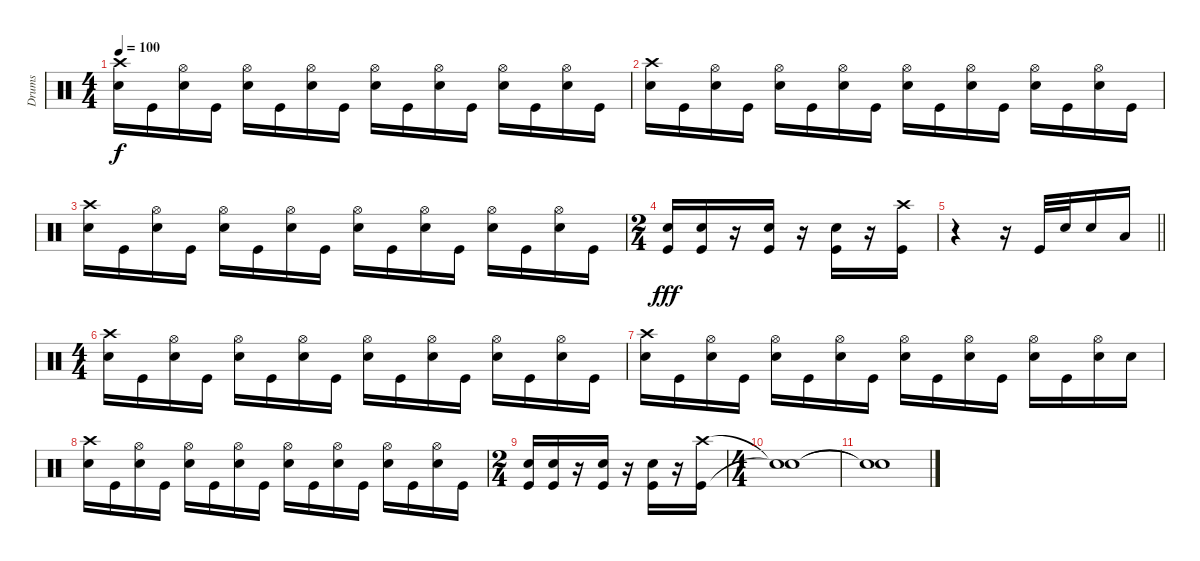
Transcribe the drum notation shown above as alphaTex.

\track ("Drums" "Drums") {instrument percussion}
\staff {score}
\articulation defaults
\ts (4 4)
\tempo 100
\clef neutral
\ks c
("Crash high (hit)" "Snare (hit) 2").16{dy f} "Kick (hit)".16 ("Hi-Hat (open)" "Snare (hit) 2").16 "Kick (hit)".16 ("Hi-Hat (open)" "Snare (hit) 2").16 "Kick (hit)".16 ("Hi-Hat (open)" "Snare (hit) 2").16 "Kick (hit)".16 ("Hi-Hat (open)" "Snare (hit) 2").16 "Kick (hit)".16 ("Hi-Hat (open)" "Snare (hit) 2").16 "Kick (hit)".16 ("Hi-Hat (open)" "Snare (hit) 2").16 "Kick (hit)".16 ("Hi-Hat (open)" "Snare (hit) 2").16 "Kick (hit)".16 |
("Crash high (hit)" "Snare (hit) 2").16 "Kick (hit)".16 ("Hi-Hat (open)" "Snare (hit) 2").16 "Kick (hit)".16 ("Hi-Hat (open)" "Snare (hit) 2").16 "Kick (hit)".16 ("Hi-Hat (open)" "Snare (hit) 2").16 "Kick (hit)".16 ("Hi-Hat (open)" "Snare (hit) 2").16 "Kick (hit)".16 ("Hi-Hat (open)" "Snare (hit) 2").16 "Kick (hit)".16 ("Hi-Hat (open)" "Snare (hit) 2").16 "Kick (hit)".16 ("Hi-Hat (open)" "Snare (hit) 2").16 "Kick (hit)".16 |
("Crash high (hit)" "Snare (hit) 2").16 "Kick (hit)".16 ("Hi-Hat (open)" "Snare (hit) 2").16 "Kick (hit)".16 ("Hi-Hat (open)" "Snare (hit) 2").16 "Kick (hit)".16 ("Hi-Hat (open)" "Snare (hit) 2").16 "Kick (hit)".16 ("Hi-Hat (open)" "Snare (hit) 2").16 "Kick (hit)".16 ("Hi-Hat (open)" "Snare (hit) 2").16 "Kick (hit)".16 ("Hi-Hat (open)" "Snare (hit) 2").16 "Kick (hit)".16 ("Hi-Hat (open)" "Snare (hit) 2").16 "Kick (hit)".16 |
\ts (2 4)
("Snare (hit) 2" "Kick (hit)").16{dy fff} ("Snare (hit) 2" "Kick (hit)").16 r.16 ("Snare (hit) 2" "Kick (hit)").16 r.16 ("Snare (hit) 2" "Kick (hit)").16 r.16 ("Crash high (hit)" "Kick (hit)").16 |
\barLineRight lightlight
r.4 r.16 "Kick (hit)".32 "Snare (hit) 2".32 "Snare (hit) 2".16 "Low Floor Tom (hit)".16 |
\ts (4 4)
("Crash high (hit)" "Snare (hit) 2").16 "Kick (hit)".16 ("Hi-Hat (open)" "Snare (hit) 2").16 "Kick (hit)".16 ("Hi-Hat (open)" "Snare (hit) 2").16 "Kick (hit)".16 ("Hi-Hat (open)" "Snare (hit) 2").16 "Kick (hit)".16 ("Hi-Hat (open)" "Snare (hit) 2").16 "Kick (hit)".16 ("Hi-Hat (open)" "Snare (hit) 2").16 "Kick (hit)".16 ("Hi-Hat (open)" "Snare (hit) 2").16 "Kick (hit)".16 ("Hi-Hat (open)" "Snare (hit) 2").16 "Kick (hit)".16 |
("Crash high (hit)" "Snare (hit) 2").16 "Kick (hit)".16 ("Hi-Hat (open)" "Snare (hit) 2").16 "Kick (hit)".16 ("Hi-Hat (open)" "Snare (hit) 2").16 "Kick (hit)".16 ("Hi-Hat (open)" "Snare (hit) 2").16 "Kick (hit)".16 ("Hi-Hat (open)" "Snare (hit) 2").16 "Kick (hit)".16 ("Hi-Hat (open)" "Snare (hit) 2").16 "Kick (hit)".16 ("Hi-Hat (open)" "Snare (hit) 2").16 "Kick (hit)".16 ("Hi-Hat (open)" "Snare (hit) 2").16 "Snare (hit) 2".16 |
("Crash high (hit)" "Snare (hit) 2").16 "Kick (hit)".16 ("Hi-Hat (open)" "Snare (hit) 2").16 "Kick (hit)".16 ("Hi-Hat (open)" "Snare (hit) 2").16 "Kick (hit)".16 ("Hi-Hat (open)" "Snare (hit) 2").16 "Kick (hit)".16 ("Hi-Hat (open)" "Snare (hit) 2").16 "Kick (hit)".16 ("Hi-Hat (open)" "Snare (hit) 2").16 "Kick (hit)".16 ("Hi-Hat (open)" "Snare (hit) 2").16 "Kick (hit)".16 ("Hi-Hat (open)" "Snare (hit) 2").16 "Kick (hit)".16 |
\ts (2 4)
("Snare (hit) 2" "Kick (hit)").16 ("Snare (hit) 2" "Kick (hit)").16 r.16 ("Snare (hit) 2" "Kick (hit)").16 r.16 ("Snare (hit) 2" "Kick (hit)").16 r.16 ("Crash high (hit)" "Kick (hit)").16 |
\ts (4 4)
("Snare (hit)"{t} "Snare (hit)"{t}).1 |
("Snare (hit)"{t} "Snare (hit)"{t}).1
